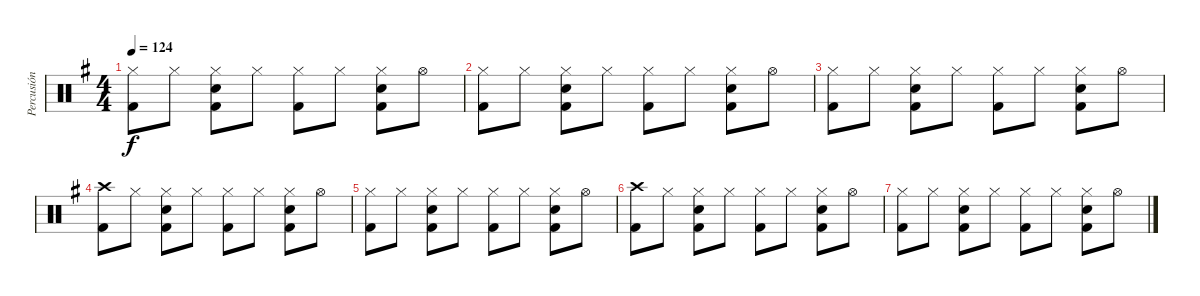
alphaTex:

\track ("Percusión" "Percusión") {instrument percussion}
\staff {score}
\articulation defaults
\ts (4 4)
\tempo 124
\clef neutral
\ks g
("Hi-Hat (closed)" "Kick (hit) 2").8{dy f} "Hi-Hat (closed)".8 ("Hi-Hat (closed)" "Electric Snare (hit)" "Kick (hit) 2").8 "Hi-Hat (closed)".8 ("Hi-Hat (closed)" "Kick (hit) 2").8 "Hi-Hat (closed)".8 ("Hi-Hat (closed)" "Electric Snare (hit)" "Kick (hit) 2").8 "Hi-Hat (open)".8 |
("Hi-Hat (closed)" "Kick (hit) 2").8{volume 10} "Hi-Hat (closed)".8 ("Hi-Hat (closed)" "Electric Snare (hit)" "Kick (hit) 2").8 "Hi-Hat (closed)".8 ("Hi-Hat (closed)" "Kick (hit) 2").8 "Hi-Hat (closed)".8 ("Hi-Hat (closed)" "Electric Snare (hit)" "Kick (hit) 2").8 "Hi-Hat (open)".8 |
("Hi-Hat (closed)" "Kick (hit) 2").8{volume 8} "Hi-Hat (closed)".8 ("Hi-Hat (closed)" "Electric Snare (hit)" "Kick (hit) 2").8 "Hi-Hat (closed)".8 ("Hi-Hat (closed)" "Kick (hit) 2").8 "Hi-Hat (closed)".8 ("Hi-Hat (closed)" "Electric Snare (hit)" "Kick (hit) 2").8 "Hi-Hat (open)".8 |
("Crash high (hit)" "Kick (hit) 2").8{volume 6} "Hi-Hat (closed)".8 ("Hi-Hat (closed)" "Electric Snare (hit)" "Kick (hit) 2").8 "Hi-Hat (closed)".8 ("Hi-Hat (closed)" "Kick (hit) 2").8 "Hi-Hat (closed)".8 ("Hi-Hat (closed)" "Electric Snare (hit)" "Kick (hit) 2").8 "Hi-Hat (open)".8 |
("Hi-Hat (closed)" "Kick (hit) 2").8{volume 4} "Hi-Hat (closed)".8 ("Hi-Hat (closed)" "Electric Snare (hit)" "Kick (hit) 2").8 "Hi-Hat (closed)".8 ("Hi-Hat (closed)" "Kick (hit) 2").8 "Hi-Hat (closed)".8 ("Hi-Hat (closed)" "Electric Snare (hit)" "Kick (hit) 2").8 "Hi-Hat (open)".8 |
("Crash high (hit)" "Kick (hit) 2").8{volume 2} "Hi-Hat (closed)".8 ("Hi-Hat (closed)" "Electric Snare (hit)" "Kick (hit) 2").8 "Hi-Hat (closed)".8 ("Hi-Hat (closed)" "Kick (hit) 2").8 "Hi-Hat (closed)".8 ("Hi-Hat (closed)" "Electric Snare (hit)" "Kick (hit) 2").8 "Hi-Hat (open)".8 |
("Hi-Hat (closed)" "Kick (hit) 2").8{volume 0} "Hi-Hat (closed)".8 ("Hi-Hat (closed)" "Electric Snare (hit)" "Kick (hit) 2").8 "Hi-Hat (closed)".8 ("Hi-Hat (closed)" "Kick (hit) 2").8 "Hi-Hat (closed)".8 ("Hi-Hat (closed)" "Electric Snare (hit)" "Kick (hit) 2").8 "Hi-Hat (open)".8
